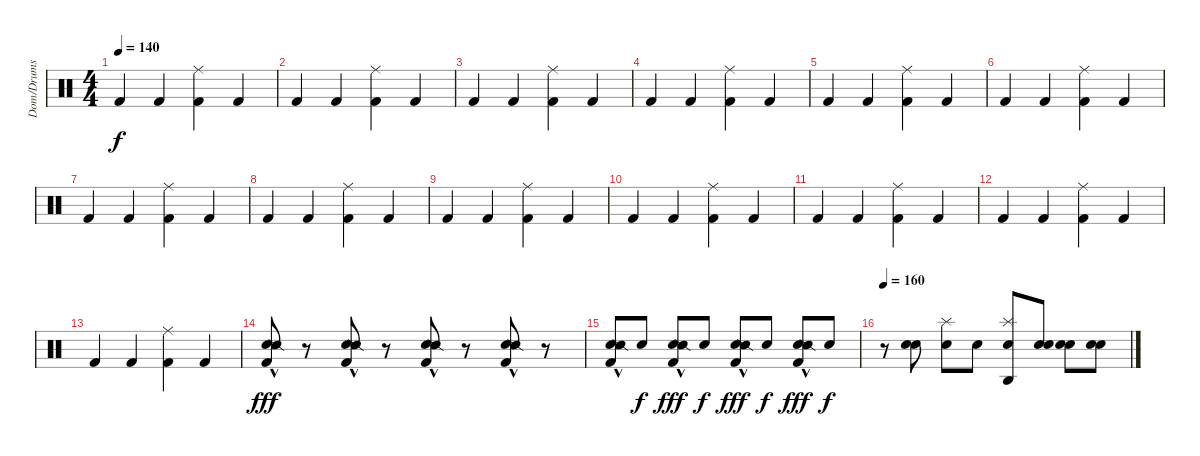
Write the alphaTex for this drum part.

\track ("Dom/Drums" "Dom/Drums") {instrument percussion}
\staff {score}
\articulation defaults
\ts (4 4)
\tempo 140
\clef neutral
\ks c "Kick (hit) 2".4{dy f} "Kick (hit) 2".4
("Ride (middle)" "Kick (hit) 2").4 "Kick (hit) 2".4 |
"Kick (hit) 2".4 "Kick (hit) 2".4 ("Ride (middle)" "Kick (hit) 2").4 "Kick (hit) 2".4 |
"Kick (hit) 2".4 "Kick (hit) 2".4 ("Ride (middle)" "Kick (hit) 2").4 "Kick (hit) 2".4 |
"Kick (hit) 2".4 "Kick (hit) 2".4 ("Ride (middle)" "Kick (hit) 2").4 "Kick (hit) 2".4 |
"Kick (hit) 2".4 "Kick (hit) 2".4 ("Ride (middle)" "Kick (hit) 2").4 "Kick (hit) 2".4 |
"Kick (hit) 2".4 "Kick (hit) 2".4 ("Ride (middle)" "Kick (hit) 2").4 "Kick (hit) 2".4 |
"Kick (hit) 2".4 "Kick (hit) 2".4 ("Ride (middle)" "Kick (hit) 2").4 "Kick (hit) 2".4 |
"Kick (hit) 2".4 "Kick (hit) 2".4 ("Ride (middle)" "Kick (hit) 2").4 "Kick (hit) 2".4 |
"Kick (hit) 2".4 "Kick (hit) 2".4 ("Ride (middle)" "Kick (hit) 2").4 "Kick (hit) 2".4 |
"Kick (hit) 2".4 "Kick (hit) 2".4 ("Ride (middle)" "Kick (hit) 2").4 "Kick (hit) 2".4 |
"Kick (hit) 2".4 "Kick (hit) 2".4 ("Ride (middle)" "Kick (hit) 2").4 "Kick (hit) 2".4 |
"Kick (hit) 2".4 "Kick (hit) 2".4 ("Ride (middle)" "Kick (hit) 2").4 "Kick (hit) 2".4 |
"Kick (hit) 2".4 "Kick (hit) 2".4 ("Ride (middle)" "Kick (hit) 2").4 "Kick (hit) 2".4 |
("Snare (hit) 2"{hac} "Kick (hit) 2"{hac} "Snare (side stick) 2"{hac}).8{dy fff} r.8 ("Snare (hit) 2"{hac} "Kick (hit) 2"{hac} "Snare (side stick) 2"{hac}).8 r.8 ("Snare (hit) 2"{hac} "Kick (hit) 2"{hac} "Snare (side stick) 2"{hac}).8 r.8 ("Snare (hit) 2"{hac} "Kick (hit) 2"{hac} "Snare (side stick) 2"{hac}).8 r.8 |
("Snare (hit) 2"{hac} "Kick (hit) 2"{hac} "Snare (side stick) 2"{hac}).8 "Snare (hit) 2".8{dy f} ("Snare (hit) 2"{hac} "Kick (hit) 2"{hac} "Snare (side stick) 2"{hac}).8{dy fff} "Snare (hit) 2".8{dy f} ("Snare (hit) 2"{hac} "Kick (hit) 2"{hac} "Snare (side stick) 2"{hac}).8{dy fff} "Snare (hit) 2".8{dy f} ("Snare (hit) 2"{hac} "Kick (hit) 2"{hac} "Snare (side stick) 2"{hac}).8{dy fff} "Snare (hit) 2".8{dy f} |
\tempo 160
r.8 ("Snare (hit) 2" "Electric Snare (hit)").8 ("Splash (hit)" "Electric Snare (hit)").8 "Electric Snare (hit)".8 ("Splash (hit)" "Electric Snare (hit)" "Agogo high (hit)").8 ("Snare (hit) 2" "Electric Snare (hit)").8 ("Snare (hit) 2" "Electric Snare (hit)").8 ("Snare (hit) 2" "Electric Snare (hit)").8
